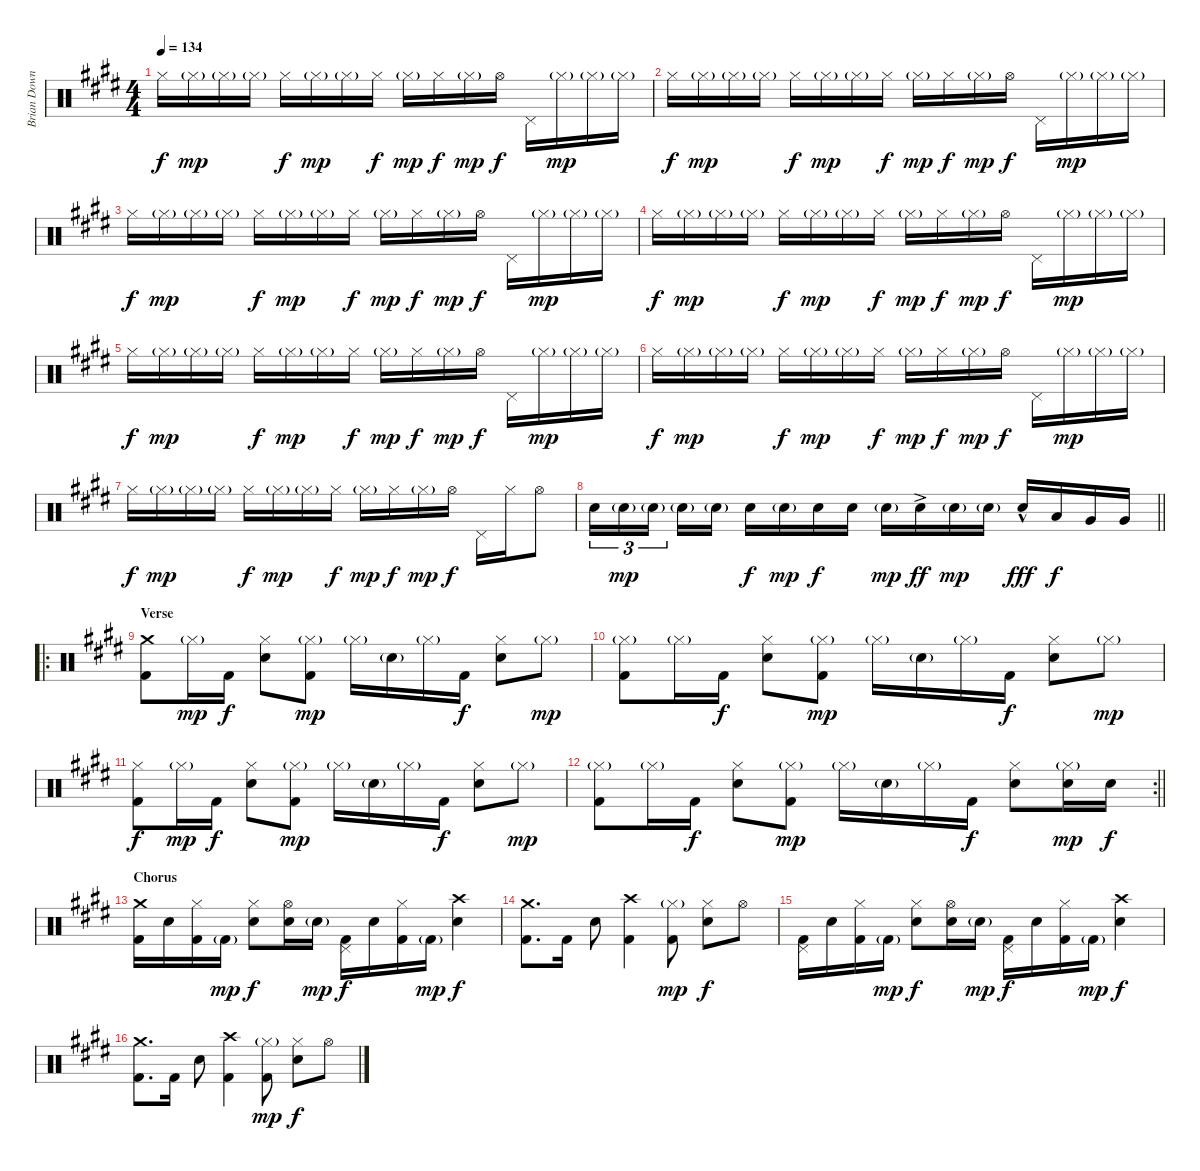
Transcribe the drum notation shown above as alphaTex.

\track ("Brian Downey" "Brian Down") {instrument percussion}
\staff {score}
\articulation defaults
\ts (4 4)
\tempo 134
\clef neutral
\ks e "Hi-Hat (closed)".16{dy f} "Hi-Hat (closed)"{g}.16{dy mp} "Hi-Hat (closed)"{g}.16 "Hi-Hat (closed)"{g}.16 "Hi-Hat (closed)".16{dy f} "Hi-Hat (closed)"{g}.16{dy mp} "Hi-Hat (closed)"{g}.16 "Hi-Hat (closed)".16{dy f} "Hi-Hat (closed)"{g}.16{dy mp} "Hi-Hat (closed)".16{dy f} "Hi-Hat (closed)"{g}.16{dy mp} "Hi-Hat (open)".16{dy f} "Pedal Hi-Hat (hit)".16 "Hi-Hat (closed)"{g}.16{dy mp} "Hi-Hat (closed)"{g}.16 "Hi-Hat (closed)"{g}.16
|
"Hi-Hat (closed)".16{dy f} "Hi-Hat (closed)"{g}.16{dy mp} "Hi-Hat (closed)"{g}.16 "Hi-Hat (closed)"{g}.16 "Hi-Hat (closed)".16{dy f} "Hi-Hat (closed)"{g}.16{dy mp} "Hi-Hat (closed)"{g}.16 "Hi-Hat (closed)".16{dy f} "Hi-Hat (closed)"{g}.16{dy mp} "Hi-Hat (closed)".16{dy f} "Hi-Hat (closed)"{g}.16{dy mp} "Hi-Hat (open)".16{dy f} "Pedal Hi-Hat (hit)".16 "Hi-Hat (closed)"{g}.16{dy mp} "Hi-Hat (closed)"{g}.16 "Hi-Hat (closed)"{g}.16 |
"Hi-Hat (closed)".16{dy f} "Hi-Hat (closed)"{g}.16{dy mp} "Hi-Hat (closed)"{g}.16 "Hi-Hat (closed)"{g}.16 "Hi-Hat (closed)".16{dy f} "Hi-Hat (closed)"{g}.16{dy mp} "Hi-Hat (closed)"{g}.16 "Hi-Hat (closed)".16{dy f} "Hi-Hat (closed)"{g}.16{dy mp} "Hi-Hat (closed)".16{dy f} "Hi-Hat (closed)"{g}.16{dy mp} "Hi-Hat (open)".16{dy f} "Pedal Hi-Hat (hit)".16 "Hi-Hat (closed)"{g}.16{dy mp} "Hi-Hat (closed)"{g}.16 "Hi-Hat (closed)"{g}.16 |
"Hi-Hat (closed)".16{dy f} "Hi-Hat (closed)"{g}.16{dy mp} "Hi-Hat (closed)"{g}.16 "Hi-Hat (closed)"{g}.16 "Hi-Hat (closed)".16{dy f} "Hi-Hat (closed)"{g}.16{dy mp} "Hi-Hat (closed)"{g}.16 "Hi-Hat (closed)".16{dy f} "Hi-Hat (closed)"{g}.16{dy mp} "Hi-Hat (closed)".16{dy f} "Hi-Hat (closed)"{g}.16{dy mp} "Hi-Hat (open)".16{dy f} "Pedal Hi-Hat (hit)".16 "Hi-Hat (closed)"{g}.16{dy mp} "Hi-Hat (closed)"{g}.16 "Hi-Hat (closed)"{g}.16 |
"Hi-Hat (closed)".16{dy f} "Hi-Hat (closed)"{g}.16{dy mp} "Hi-Hat (closed)"{g}.16 "Hi-Hat (closed)"{g}.16 "Hi-Hat (closed)".16{dy f} "Hi-Hat (closed)"{g}.16{dy mp} "Hi-Hat (closed)"{g}.16 "Hi-Hat (closed)".16{dy f} "Hi-Hat (closed)"{g}.16{dy mp} "Hi-Hat (closed)".16{dy f} "Hi-Hat (closed)"{g}.16{dy mp} "Hi-Hat (open)".16{dy f} "Pedal Hi-Hat (hit)".16 "Hi-Hat (closed)"{g}.16{dy mp} "Hi-Hat (closed)"{g}.16 "Hi-Hat (closed)"{g}.16 |
"Hi-Hat (closed)".16{dy f} "Hi-Hat (closed)"{g}.16{dy mp} "Hi-Hat (closed)"{g}.16 "Hi-Hat (closed)"{g}.16 "Hi-Hat (closed)".16{dy f} "Hi-Hat (closed)"{g}.16{dy mp} "Hi-Hat (closed)"{g}.16 "Hi-Hat (closed)".16{dy f} "Hi-Hat (closed)"{g}.16{dy mp} "Hi-Hat (closed)".16{dy f} "Hi-Hat (closed)"{g}.16{dy mp} "Hi-Hat (open)".16{dy f} "Pedal Hi-Hat (hit)".16 "Hi-Hat (closed)"{g}.16{dy mp} "Hi-Hat (closed)"{g}.16 "Hi-Hat (closed)"{g}.16 |
"Hi-Hat (closed)".16{dy f} "Hi-Hat (closed)"{g}.16{dy mp} "Hi-Hat (closed)"{g}.16 "Hi-Hat (closed)"{g}.16 "Hi-Hat (closed)".16{dy f} "Hi-Hat (closed)"{g}.16{dy mp} "Hi-Hat (closed)"{g}.16 "Hi-Hat (closed)".16{dy f} "Hi-Hat (closed)"{g}.16{dy mp} "Hi-Hat (closed)".16{dy f} "Hi-Hat (closed)"{g}.16{dy mp} "Hi-Hat (open)".16{dy f} "Pedal Hi-Hat (hit)".16 "Hi-Hat (closed)".16 "Hi-Hat (open)".8 |
\barLineRight lightlight "Electric Snare (hit)".16{tu (3 2)} "Electric Snare (hit)"{g}.16{tu (3 2) dy mp} "Electric Snare (hit)"{g}.16{tu (3 2) beam splitsecondary} "Electric Snare (hit)"{g}.16 "Electric Snare (hit)"{g}.16 "Electric Snare (hit)".16{dy f} "Electric Snare (hit)"{g}.16{dy mp} "Electric Snare (hit)".16{dy f} "Electric Snare (hit)".16 "Electric Snare (hit)"{g}.16{dy mp} "Electric Snare (hit)"{ac}.16{dy ff} "Electric Snare (hit)"{g}.16{dy mp} "Electric Snare (hit)"{g}.16 "Electric Snare (hit)"{hac}.16{dy fff} "Low Tom (hit)".16{dy f} "Very Low Tom (hit)".16 "Very Low Tom (hit)".16
|
\ro
\section ("" "Verse")
("Crash medium (hit)" "Kick (hit) 2").8 "Hi-Hat (closed)"{g}.16{dy mp} "Kick (hit) 2".16{dy f} ("Hi-Hat (closed)" "Electric Snare (hit)").8 ("Hi-Hat (closed)"{g} "Kick (hit) 2").8{dy mp} "Hi-Hat (closed)"{g}.16 "Electric Snare (hit)"{g}.16 "Hi-Hat (closed)"{g}.16 "Kick (hit) 2".16{dy f} ("Hi-Hat (closed)" "Electric Snare (hit)").8 "Hi-Hat (closed)"{g}.8{dy mp} |
("Hi-Hat (closed)"{g} "Kick (hit) 2").8 "Hi-Hat (closed)"{g}.16 "Kick (hit) 2".16{dy f} ("Hi-Hat (closed)" "Electric Snare (hit)").8 ("Hi-Hat (closed)"{g} "Kick (hit) 2").8{dy mp} "Hi-Hat (closed)"{g}.16 "Electric Snare (hit)"{g}.16 "Hi-Hat (closed)"{g}.16 "Kick (hit) 2".16{dy f} ("Hi-Hat (closed)" "Electric Snare (hit)").8 "Hi-Hat (closed)"{g}.8{dy mp} |
("Hi-Hat (closed)" "Kick (hit) 2").8{dy f} "Hi-Hat (closed)"{g}.16{dy mp} "Kick (hit) 2".16{dy f} ("Hi-Hat (closed)" "Electric Snare (hit)").8 ("Hi-Hat (closed)"{g} "Kick (hit) 2").8{dy mp} "Hi-Hat (closed)"{g}.16 "Electric Snare (hit)"{g}.16 "Hi-Hat (closed)"{g}.16 "Kick (hit) 2".16{dy f} ("Hi-Hat (closed)" "Electric Snare (hit)").8 "Hi-Hat (closed)"{g}.8{dy mp} |
\rc 2
\barLineRight lightlight
("Hi-Hat (closed)"{g} "Kick (hit) 2").8 "Hi-Hat (closed)"{g}.16 "Kick (hit) 2".16{dy f} ("Hi-Hat (closed)" "Electric Snare (hit)").8 ("Hi-Hat (closed)"{g} "Kick (hit) 2").8{dy mp} "Hi-Hat (closed)"{g}.16 "Electric Snare (hit)"{g}.16 "Hi-Hat (closed)"{g}.16 "Kick (hit) 2".16{dy f} ("Hi-Hat (closed)" "Electric Snare (hit)").8 ("Hi-Hat (closed)"{g} "Electric Snare (hit)").16{dy mp} "Electric Snare (hit)".16{dy f} |
\section ("" "Chorus")
("Crash medium (hit)" "Kick (hit) 2").16 "Electric Snare (hit)".16 ("Hi-Hat (closed)" "Kick (hit) 2").16 "Kick (hit) 2"{g}.16{dy mp} ("Hi-Hat (closed)" "Electric Snare (hit)").8{dy f} ("Hi-Hat (open)" "Electric Snare (hit)").16 "Electric Snare (hit)"{g}.16{dy mp} ("Pedal Hi-Hat (hit)" "Kick (hit) 2").16{dy f} "Electric Snare (hit)".16 ("Hi-Hat (closed)" "Kick (hit) 2").16 "Kick (hit) 2"{g}.16{dy mp} ("Crash high (hit)" "Electric Snare (hit)").4{dy f} |
("Crash medium (hit)" "Kick (hit) 2").8{d} "Kick (hit) 2".16 "Electric Snare (hit)".8 ("Crash high (hit)" "Kick (hit) 2").4 ("Hi-Hat (closed)"{g} "Kick (hit) 2").8{dy mp} ("Hi-Hat (closed)" "Electric Snare (hit)").8{dy f} "Hi-Hat (open)".8 |
("Pedal Hi-Hat (hit)" "Kick (hit) 2").16 "Electric Snare (hit)".16 ("Hi-Hat (closed)" "Kick (hit) 2").16 "Kick (hit) 2"{g}.16{dy mp} ("Hi-Hat (closed)" "Electric Snare (hit)").8{dy f} ("Hi-Hat (open)" "Electric Snare (hit)").16 "Electric Snare (hit)"{g}.16{dy mp} ("Pedal Hi-Hat (hit)" "Kick (hit) 2").16{dy f} "Electric Snare (hit)".16 ("Hi-Hat (closed)" "Kick (hit) 2").16 "Kick (hit) 2"{g}.16{dy mp} ("Crash high (hit)" "Electric Snare (hit)").4{dy f} |
("Crash medium (hit)" "Kick (hit) 2").8{d} "Kick (hit) 2".16 "Electric Snare (hit)".8 ("Crash high (hit)" "Kick (hit) 2").4 ("Hi-Hat (closed)"{g} "Kick (hit) 2").8{dy mp} ("Hi-Hat (closed)" "Electric Snare (hit)").8{dy f} "Hi-Hat (open)".8
